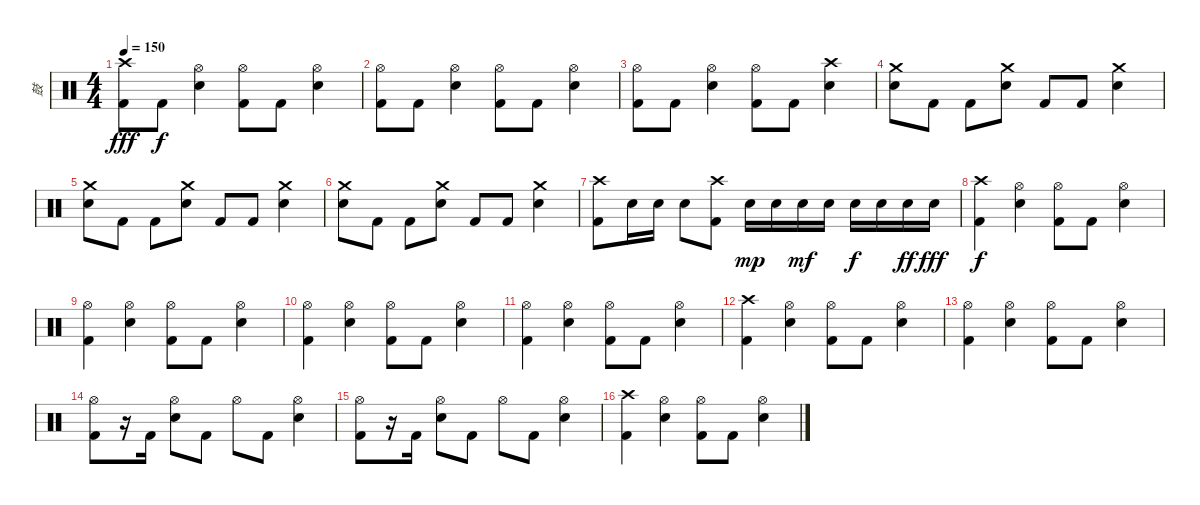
\track ("鼓" "鼓") {instrument percussion}
\staff {score}
\articulation defaults
\ts (4 4)
\tempo 150
\clef neutral
\ks c
("Crash high (hit)" "Kick (hit) 2").8{dy fff} "Kick (hit) 2".8{dy f} ("Hi-Hat (open)" "Snare (hit) 2").4 ("Hi-Hat (open)" "Kick (hit) 2").8 "Kick (hit) 2".8 ("Hi-Hat (open)" "Snare (hit) 2").4 |
("Hi-Hat (open)" "Kick (hit) 2").8 "Kick (hit) 2".8 ("Hi-Hat (open)" "Snare (hit) 2").4 ("Hi-Hat (open)" "Kick (hit) 2").8 "Kick (hit) 2".8 ("Hi-Hat (open)" "Snare (hit) 2").4 |
("Hi-Hat (open)" "Kick (hit) 2").8 "Kick (hit) 2".8 ("Hi-Hat (open)" "Snare (hit) 2").4 ("Hi-Hat (open)" "Kick (hit) 2").8 "Kick (hit) 2".8 ("Crash high (hit)" "Snare (hit) 2").4 |
("Crash medium (hit)" "Snare (hit) 2").8 "Kick (hit) 2".8 "Kick (hit) 2".8 ("Crash medium (hit)" "Snare (hit) 2").8 "Kick (hit) 2".8 "Kick (hit) 2".8 ("Crash medium (hit)" "Snare (hit) 2").4 |
("Crash medium (hit)" "Snare (hit) 2").8 "Kick (hit) 2".8 "Kick (hit) 2".8 ("Crash medium (hit)" "Snare (hit) 2").8 "Kick (hit) 2".8 "Kick (hit) 2".8 ("Crash medium (hit)" "Snare (hit) 2").4 |
("Crash medium (hit)" "Snare (hit) 2").8 "Kick (hit) 2".8 "Kick (hit) 2".8 ("Crash medium (hit)" "Snare (hit) 2").8 "Kick (hit) 2".8 "Kick (hit) 2".8 ("Crash medium (hit)" "Snare (hit) 2").4 |
("Crash high (hit)" "Kick (hit) 2").8 "Snare (hit) 2".16 "Snare (hit) 2".16 "Snare (hit) 2".8 ("Crash high (hit)" "Kick (hit) 2").8 "Snare (hit) 2".16{dy mp} "Snare (hit) 2".16 "Snare (hit) 2".16{dy mf} "Snare (hit) 2".16 "Snare (hit) 2".16{dy f} "Snare (hit) 2".16 "Snare (hit) 2".16{dy ff} "Snare (hit) 2".16{dy fff} |
("Crash high (hit)" "Kick (hit) 2").4{dy f} ("Hi-Hat (open)" "Snare (hit) 2").4 ("Hi-Hat (open)" "Kick (hit) 2").8 "Kick (hit) 2".8 ("Hi-Hat (open)" "Snare (hit) 2").4 |
("Hi-Hat (open)" "Kick (hit) 2").4 ("Hi-Hat (open)" "Snare (hit) 2").4 ("Hi-Hat (open)" "Kick (hit) 2").8 "Kick (hit) 2".8 ("Hi-Hat (open)" "Snare (hit) 2").4 |
("Hi-Hat (open)" "Kick (hit) 2").4 ("Hi-Hat (open)" "Snare (hit) 2").4 ("Hi-Hat (open)" "Kick (hit) 2").8 "Kick (hit) 2".8 ("Hi-Hat (open)" "Snare (hit) 2").4 |
("Hi-Hat (open)" "Kick (hit) 2").4 ("Hi-Hat (open)" "Snare (hit) 2").4 ("Hi-Hat (open)" "Kick (hit) 2").8 "Kick (hit) 2".8 ("Hi-Hat (open)" "Snare (hit) 2").4 |
("Crash high (hit)" "Kick (hit) 2").4 ("Hi-Hat (open)" "Snare (hit) 2").4 ("Hi-Hat (open)" "Kick (hit) 2").8 "Kick (hit) 2".8 ("Hi-Hat (open)" "Snare (hit) 2").4 |
("Hi-Hat (open)" "Kick (hit) 2").4 ("Hi-Hat (open)" "Snare (hit) 2").4 ("Hi-Hat (open)" "Kick (hit) 2").8 "Kick (hit) 2".8 ("Hi-Hat (open)" "Snare (hit) 2").4 |
("Hi-Hat (open)" "Kick (hit) 2").8 r.16 "Kick (hit) 2".16 ("Hi-Hat (open)" "Snare (hit) 2").8 "Kick (hit) 2".8 "Hi-Hat (open)".8 "Kick (hit) 2".8 ("Hi-Hat (open)" "Snare (hit) 2").4 |
("Hi-Hat (open)" "Kick (hit) 2").8 r.16 "Kick (hit) 2".16 ("Hi-Hat (open)" "Snare (hit) 2").8 "Kick (hit) 2".8 "Hi-Hat (open)".8 "Kick (hit) 2".8 ("Hi-Hat (open)" "Snare (hit) 2").4 |
("Crash high (hit)" "Kick (hit) 2").4 ("Hi-Hat (open)" "Snare (hit) 2").4 ("Hi-Hat (open)" "Kick (hit) 2").8 "Kick (hit) 2".8 ("Hi-Hat (open)" "Snare (hit) 2").4
